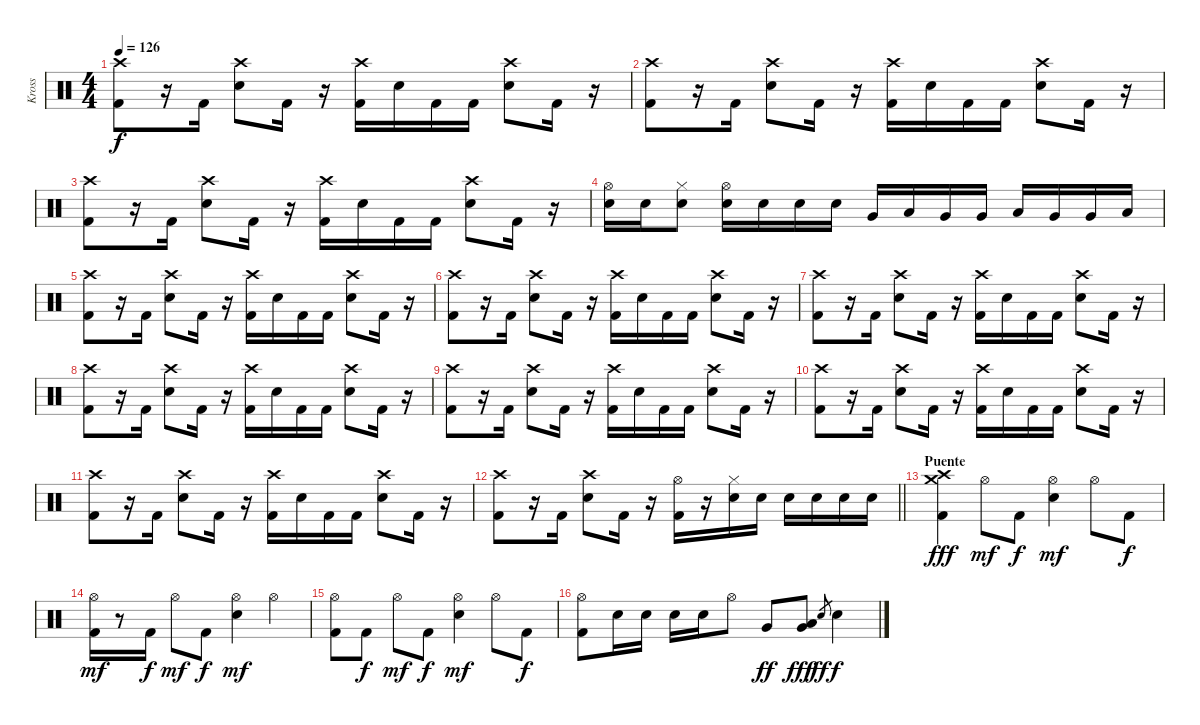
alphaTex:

\track ("Kross" "Kross") {instrument percussion}
\staff {score}
\articulation defaults
\ts (4 4)
\tempo 126
\clef neutral
\ks c
("Crash high (hit)" "Kick (hit) 2").8{dy f} r.16 "Kick (hit) 2".16 ("Crash high (hit)" "Electric Snare (hit)").8 "Kick (hit) 2".16 r.16 ("Crash high (hit)" "Kick (hit) 2").16 "Electric Snare (hit)".16 "Kick (hit) 2".16 "Kick (hit) 2".16 ("Crash high (hit)" "Electric Snare (hit)").8 "Kick (hit) 2".16 r.16 |
("Crash high (hit)" "Kick (hit) 2").8 r.16 "Kick (hit) 2".16 ("Crash high (hit)" "Electric Snare (hit)").8 "Kick (hit) 2".16 r.16 ("Crash high (hit)" "Kick (hit) 2").16 "Electric Snare (hit)".16 "Kick (hit) 2".16 "Kick (hit) 2".16 ("Crash high (hit)" "Electric Snare (hit)").8 "Kick (hit) 2".16 r.16 |
("Crash high (hit)" "Kick (hit) 2").8 r.16 "Kick (hit) 2".16 ("Crash high (hit)" "Electric Snare (hit)").8 "Kick (hit) 2".16 r.16 ("Crash high (hit)" "Kick (hit) 2").16 "Electric Snare (hit)".16 "Kick (hit) 2".16 "Kick (hit) 2".16 ("Crash high (hit)" "Electric Snare (hit)").8 "Kick (hit) 2".16 r.16 |
("Hi-Hat (open)" "Electric Snare (hit)").16 "Electric Snare (hit)".16 ("Hi-Hat (closed)" "Electric Snare (hit)").8 ("Hi-Hat (open)" "Electric Snare (hit)").16 "Electric Snare (hit)".16 "Electric Snare (hit)".16 "Electric Snare (hit)".16 "Very Low Tom (hit)".16 "Low Tom (hit)".16 "Very Low Tom (hit)".16 "Very Low Tom (hit)".16 "Low Tom (hit)".16 "Very Low Tom (hit)".16 "Very Low Tom (hit)".16 "Low Tom (hit)".16 |
("Crash high (hit)" "Kick (hit) 2").8 r.16 "Kick (hit) 2".16 ("Crash high (hit)" "Electric Snare (hit)").8 "Kick (hit) 2".16 r.16 ("Crash high (hit)" "Kick (hit) 2").16 "Electric Snare (hit)".16 "Kick (hit) 2".16 "Kick (hit) 2".16 ("Crash high (hit)" "Electric Snare (hit)").8 "Kick (hit) 2".16 r.16 |
("Crash high (hit)" "Kick (hit) 2").8 r.16 "Kick (hit) 2".16 ("Crash high (hit)" "Electric Snare (hit)").8 "Kick (hit) 2".16 r.16 ("Crash high (hit)" "Kick (hit) 2").16 "Electric Snare (hit)".16 "Kick (hit) 2".16 "Kick (hit) 2".16 ("Crash high (hit)" "Electric Snare (hit)").8 "Kick (hit) 2".16 r.16 |
("Crash high (hit)" "Kick (hit) 2").8 r.16 "Kick (hit) 2".16 ("Crash high (hit)" "Electric Snare (hit)").8 "Kick (hit) 2".16 r.16 ("Crash high (hit)" "Kick (hit) 2").16 "Electric Snare (hit)".16 "Kick (hit) 2".16 "Kick (hit) 2".16 ("Crash high (hit)" "Electric Snare (hit)").8 "Kick (hit) 2".16 r.16 |
("Crash high (hit)" "Kick (hit) 2").8 r.16 "Kick (hit) 2".16 ("Crash high (hit)" "Electric Snare (hit)").8 "Kick (hit) 2".16 r.16 ("Crash high (hit)" "Kick (hit) 2").16 "Electric Snare (hit)".16 "Kick (hit) 2".16 "Kick (hit) 2".16 ("Crash high (hit)" "Electric Snare (hit)").8 "Kick (hit) 2".16 r.16 |
("Crash high (hit)" "Kick (hit) 2").8 r.16 "Kick (hit) 2".16 ("Crash high (hit)" "Electric Snare (hit)").8 "Kick (hit) 2".16 r.16 ("Crash high (hit)" "Kick (hit) 2").16 "Electric Snare (hit)".16 "Kick (hit) 2".16 "Kick (hit) 2".16 ("Crash high (hit)" "Electric Snare (hit)").8 "Kick (hit) 2".16 r.16 |
("Crash high (hit)" "Kick (hit) 2").8 r.16 "Kick (hit) 2".16 ("Crash high (hit)" "Electric Snare (hit)").8 "Kick (hit) 2".16 r.16 ("Crash high (hit)" "Kick (hit) 2").16 "Electric Snare (hit)".16 "Kick (hit) 2".16 "Kick (hit) 2".16 ("Crash high (hit)" "Electric Snare (hit)").8 "Kick (hit) 2".16 r.16 |
("Crash high (hit)" "Kick (hit) 2").8 r.16 "Kick (hit) 2".16 ("Crash high (hit)" "Electric Snare (hit)").8 "Kick (hit) 2".16 r.16 ("Crash high (hit)" "Kick (hit) 2").16 "Electric Snare (hit)".16 "Kick (hit) 2".16 "Kick (hit) 2".16 ("Crash high (hit)" "Electric Snare (hit)").8 "Kick (hit) 2".16 r.16 |
\barLineRight lightlight
("Crash high (hit)" "Kick (hit) 2").8 r.16 "Kick (hit) 2".16 ("Crash high (hit)" "Electric Snare (hit)").8 "Kick (hit) 2".16 r.16 ("Hi-Hat (open)" "Kick (hit) 2").16 r.16 ("Hi-Hat (closed)" "Electric Snare (hit)").16 "Electric Snare (hit)".16 "Electric Snare (hit)".16 "Electric Snare (hit)".16 "Electric Snare (hit)".16 "Electric Snare (hit)".16 |
\section ("" "Puente")
("Crash high (hit)" "Crash medium (hit)" "Kick (hit) 2").4{dy fff} "Hi-Hat (open)".8{dy mf} "Kick (hit) 2".8{dy f} ("Hi-Hat (open)" "Electric Snare (hit)").4{dy mf} "Hi-Hat (open)".8 "Kick (hit) 2".8{dy f} |
("Hi-Hat (open)" "Kick (hit) 2").16{dy mf} r.8 "Kick (hit) 2".16{dy f} "Hi-Hat (open)".8{dy mf} "Kick (hit) 2".8{dy f} ("Hi-Hat (open)" "Electric Snare (hit)").4{dy mf} "Hi-Hat (open)".4 |
("Hi-Hat (open)" "Kick (hit) 2").8 "Kick (hit) 2".8{dy f} "Hi-Hat (open)".8{dy mf} "Kick (hit) 2".8{dy f} ("Hi-Hat (open)" "Electric Snare (hit)").4{dy mf} "Hi-Hat (open)".8 "Kick (hit) 2".8{dy f} |
("Hi-Hat (open)" "Kick (hit) 2").8 "Electric Snare (hit)".16 "Electric Snare (hit)".16 "Electric Snare (hit)".16 "Electric Snare (hit)".16 "Hi-Hat (open)".8 "Very Low Tom (hit)".8{dy ff} ("Low Tom (hit)" "Very Low Tom (hit)").8{dy fff} "Electric Snare (hit)".8{gr dy ff} "Electric Snare (hit)".4{dy f}
